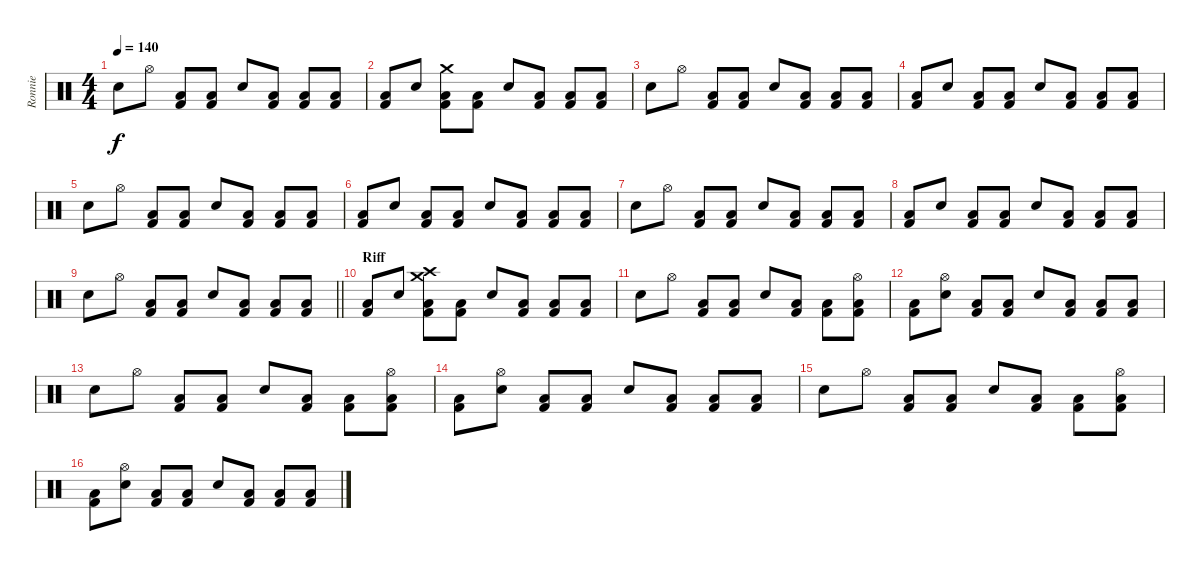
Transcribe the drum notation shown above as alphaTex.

\track ("Ronnie" "Ronnie") {instrument percussion}
\staff {score}
\articulation defaults
\ts (4 4)
\tempo 140
\clef neutral
\ks c "Electric Snare (hit)".8{dy f} "Hi-Hat (open)".8
("Low Tom (hit)" "Kick (hit) 2").8 ("Low Tom (hit)" "Kick (hit) 2").8 "Electric Snare (hit)".8 ("Low Tom (hit)" "Kick (hit) 2").8 ("Low Tom (hit)" "Kick (hit) 2").8 ("Low Tom (hit)" "Kick (hit) 2").8 |
("Low Tom (hit)" "Kick (hit) 2").8 "Electric Snare (hit)".8 ("Crash medium (hit)" "Low Tom (hit)" "Kick (hit) 2").8 ("Low Tom (hit)" "Kick (hit) 2").8 "Electric Snare (hit)".8 ("Low Tom (hit)" "Kick (hit) 2").8 ("Low Tom (hit)" "Kick (hit) 2").8 ("Low Tom (hit)" "Kick (hit) 2").8 |
"Electric Snare (hit)".8 "Hi-Hat (open)".8 ("Low Tom (hit)" "Kick (hit) 2").8 ("Low Tom (hit)" "Kick (hit) 2").8 "Electric Snare (hit)".8 ("Low Tom (hit)" "Kick (hit) 2").8 ("Low Tom (hit)" "Kick (hit) 2").8 ("Low Tom (hit)" "Kick (hit) 2").8 |
("Low Tom (hit)" "Kick (hit) 2").8 "Electric Snare (hit)".8 ("Low Tom (hit)" "Kick (hit) 2").8 ("Low Tom (hit)" "Kick (hit) 2").8 "Electric Snare (hit)".8 ("Low Tom (hit)" "Kick (hit) 2").8 ("Low Tom (hit)" "Kick (hit) 2").8 ("Low Tom (hit)" "Kick (hit) 2").8 |
"Electric Snare (hit)".8 "Hi-Hat (open)".8 ("Low Tom (hit)" "Kick (hit) 2").8 ("Low Tom (hit)" "Kick (hit) 2").8 "Electric Snare (hit)".8 ("Low Tom (hit)" "Kick (hit) 2").8 ("Low Tom (hit)" "Kick (hit) 2").8 ("Low Tom (hit)" "Kick (hit) 2").8 |
("Low Tom (hit)" "Kick (hit) 2").8 "Electric Snare (hit)".8 ("Low Tom (hit)" "Kick (hit) 2").8 ("Low Tom (hit)" "Kick (hit) 2").8 "Electric Snare (hit)".8 ("Low Tom (hit)" "Kick (hit) 2").8 ("Low Tom (hit)" "Kick (hit) 2").8 ("Low Tom (hit)" "Kick (hit) 2").8 |
"Electric Snare (hit)".8 "Hi-Hat (open)".8 ("Low Tom (hit)" "Kick (hit) 2").8 ("Low Tom (hit)" "Kick (hit) 2").8 "Electric Snare (hit)".8 ("Low Tom (hit)" "Kick (hit) 2").8 ("Low Tom (hit)" "Kick (hit) 2").8 ("Low Tom (hit)" "Kick (hit) 2").8 |
("Low Tom (hit)" "Kick (hit) 2").8 "Electric Snare (hit)".8 ("Low Tom (hit)" "Kick (hit) 2").8 ("Low Tom (hit)" "Kick (hit) 2").8 "Electric Snare (hit)".8 ("Low Tom (hit)" "Kick (hit) 2").8 ("Low Tom (hit)" "Kick (hit) 2").8 ("Low Tom (hit)" "Kick (hit) 2").8 |
\barLineRight lightlight "Electric Snare (hit)".8 "Hi-Hat (open)".8
("Low Tom (hit)" "Kick (hit) 2").8 ("Low Tom (hit)" "Kick (hit) 2").8 "Electric Snare (hit)".8 ("Low Tom (hit)" "Kick (hit) 2").8 ("Low Tom (hit)" "Kick (hit) 2").8 ("Low Tom (hit)" "Kick (hit) 2").8 |
\section ("" "Riff")
("Low Tom (hit)" "Kick (hit) 2").8 "Electric Snare (hit)".8 ("Crash medium (hit)" "Crash high (hit)" "Low Tom (hit)" "Kick (hit) 2").8 ("Low Tom (hit)" "Kick (hit) 2").8 "Electric Snare (hit)".8 ("Low Tom (hit)" "Kick (hit) 2").8 ("Low Tom (hit)" "Kick (hit) 2").8 ("Low Tom (hit)" "Kick (hit) 2").8 |
"Electric Snare (hit)".8 "Hi-Hat (open)".8 ("Low Tom (hit)" "Kick (hit) 2").8 ("Low Tom (hit)" "Kick (hit) 2").8 "Electric Snare (hit)".8 ("Low Tom (hit)" "Kick (hit) 2").8 ("Low Tom (hit)" "Kick (hit) 2").8 ("Hi-Hat (open)" "Low Tom (hit)" "Kick (hit) 2").8 |
("Low Tom (hit)" "Kick (hit) 2").8 ("Hi-Hat (open)" "Electric Snare (hit)").8 ("Low Tom (hit)" "Kick (hit) 2").8 ("Low Tom (hit)" "Kick (hit) 2").8 "Electric Snare (hit)".8 ("Low Tom (hit)" "Kick (hit) 2").8 ("Low Tom (hit)" "Kick (hit) 2").8 ("Low Tom (hit)" "Kick (hit) 2").8 |
"Electric Snare (hit)".8 "Hi-Hat (open)".8 ("Low Tom (hit)" "Kick (hit) 2").8 ("Low Tom (hit)" "Kick (hit) 2").8 "Electric Snare (hit)".8 ("Low Tom (hit)" "Kick (hit) 2").8 ("Low Tom (hit)" "Kick (hit) 2").8 ("Hi-Hat (open)" "Low Tom (hit)" "Kick (hit) 2").8 |
("Low Tom (hit)" "Kick (hit) 2").8 ("Hi-Hat (open)" "Electric Snare (hit)").8 ("Low Tom (hit)" "Kick (hit) 2").8 ("Low Tom (hit)" "Kick (hit) 2").8 "Electric Snare (hit)".8 ("Low Tom (hit)" "Kick (hit) 2").8 ("Low Tom (hit)" "Kick (hit) 2").8 ("Low Tom (hit)" "Kick (hit) 2").8 |
"Electric Snare (hit)".8 "Hi-Hat (open)".8 ("Low Tom (hit)" "Kick (hit) 2").8 ("Low Tom (hit)" "Kick (hit) 2").8 "Electric Snare (hit)".8 ("Low Tom (hit)" "Kick (hit) 2").8 ("Low Tom (hit)" "Kick (hit) 2").8 ("Hi-Hat (open)" "Low Tom (hit)" "Kick (hit) 2").8 |
("Low Tom (hit)" "Kick (hit) 2").8 ("Hi-Hat (open)" "Electric Snare (hit)").8 ("Low Tom (hit)" "Kick (hit) 2").8 ("Low Tom (hit)" "Kick (hit) 2").8 "Electric Snare (hit)".8 ("Low Tom (hit)" "Kick (hit) 2").8 ("Low Tom (hit)" "Kick (hit) 2").8 ("Low Tom (hit)" "Kick (hit) 2").8
